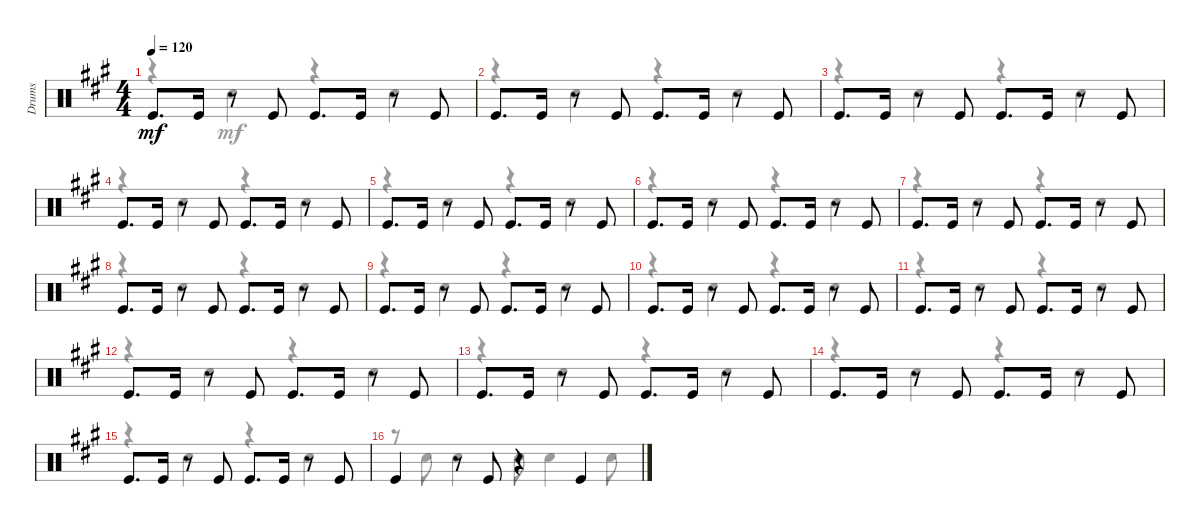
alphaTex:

\track ("Drums" "Drums") {instrument percussion}
\staff {score}
\articulation defaults
\voice
\ts (4 4)
\tempo 120
\clef neutral
\ks f#minor "Kick (hit)".8{d dy mf} "Kick (hit)".16
r.8 "Kick (hit)".8 "Kick (hit)".8{d} "Kick (hit)".16 r.8 "Kick (hit)".8 |
"Kick (hit)".8{d} "Kick (hit)".16 r.8 "Kick (hit)".8 "Kick (hit)".8{d} "Kick (hit)".16 r.8 "Kick (hit)".8 |
"Kick (hit)".8{d} "Kick (hit)".16 r.8 "Kick (hit)".8 "Kick (hit)".8{d} "Kick (hit)".16 r.8 "Kick (hit)".8 |
"Kick (hit)".8{d} "Kick (hit)".16 r.8 "Kick (hit)".8 "Kick (hit)".8{d} "Kick (hit)".16 r.8 "Kick (hit)".8 |
"Kick (hit)".8{d} "Kick (hit)".16 r.8 "Kick (hit)".8 "Kick (hit)".8{d} "Kick (hit)".16 r.8 "Kick (hit)".8 |
"Kick (hit)".8{d} "Kick (hit)".16 r.8 "Kick (hit)".8 "Kick (hit)".8{d} "Kick (hit)".16 r.8 "Kick (hit)".8 |
"Kick (hit)".8{d} "Kick (hit)".16 r.8 "Kick (hit)".8 "Kick (hit)".8{d} "Kick (hit)".16 r.8 "Kick (hit)".8 |
"Kick (hit)".8{d} "Kick (hit)".16 r.8 "Kick (hit)".8 "Kick (hit)".8{d} "Kick (hit)".16 r.8 "Kick (hit)".8 |
"Kick (hit)".8{d} "Kick (hit)".16 r.8 "Kick (hit)".8 "Kick (hit)".8{d} "Kick (hit)".16 r.8 "Kick (hit)".8 |
"Kick (hit)".8{d} "Kick (hit)".16 r.8 "Kick (hit)".8 "Kick (hit)".8{d} "Kick (hit)".16 r.8 "Kick (hit)".8 |
"Kick (hit)".8{d} "Kick (hit)".16 r.8 "Kick (hit)".8 "Kick (hit)".8{d} "Kick (hit)".16 r.8 "Kick (hit)".8 |
"Kick (hit)".8{d} "Kick (hit)".16 r.8 "Kick (hit)".8 "Kick (hit)".8{d} "Kick (hit)".16 r.8 "Kick (hit)".8 |
"Kick (hit)".8{d} "Kick (hit)".16 r.8 "Kick (hit)".8 "Kick (hit)".8{d} "Kick (hit)".16 r.8 "Kick (hit)".8 |
"Kick (hit)".8{d} "Kick (hit)".16 r.8 "Kick (hit)".8 "Kick (hit)".8{d} "Kick (hit)".16 r.8 "Kick (hit)".8 |
"Kick (hit)".8{d} "Kick (hit)".16 r.8 "Kick (hit)".8 "Kick (hit)".8{d} "Kick (hit)".16 r.8 "Kick (hit)".8 |
"Kick (hit)".4 r.8 "Kick (hit)".8 r.4 "Kick (hit)".4
\voice
\clef neutral
\ottava regular
\simile none
\ks f#minor
r.4{dy mf} "Snare (hit) 2".4 r.4 "Snare (hit) 2".4 |
r.4 "Snare (hit) 2".4 r.4 "Snare (hit) 2".4 |
r.4 "Snare (hit) 2".4 r.4 "Snare (hit) 2".4 |
r.4 "Snare (hit) 2".4 r.4 "Snare (hit) 2".4 |
r.4 "Snare (hit) 2".4 r.4 "Snare (hit) 2".4 |
r.4 "Snare (hit) 2".4 r.4 "Snare (hit) 2".4 |
r.4 "Snare (hit) 2".4 r.4 "Snare (hit) 2".4 |
r.4 "Snare (hit) 2".4 r.4 "Snare (hit) 2".4 |
r.4 "Snare (hit) 2".4 r.4 "Snare (hit) 2".4 |
r.4 "Snare (hit) 2".4 r.4 "Snare (hit) 2".4 |
r.4 "Snare (hit) 2".4 r.4 "Snare (hit) 2".4 |
r.4 "Snare (hit) 2".4 r.4 "Snare (hit) 2".4 |
r.4 "Snare (hit) 2".4 r.4 "Snare (hit) 2".4 |
r.4 "Snare (hit) 2".4 r.4 "Snare (hit) 2".4 |
r.4 "Snare (hit) 2".4 r.4 "Snare (hit) 2".4 |
r.8 "Snare (hit) 2".8 "Snare (hit) 2".4 "Snare (hit) 2".8 "Snare (hit) 2".4 "Snare (hit) 2".8
